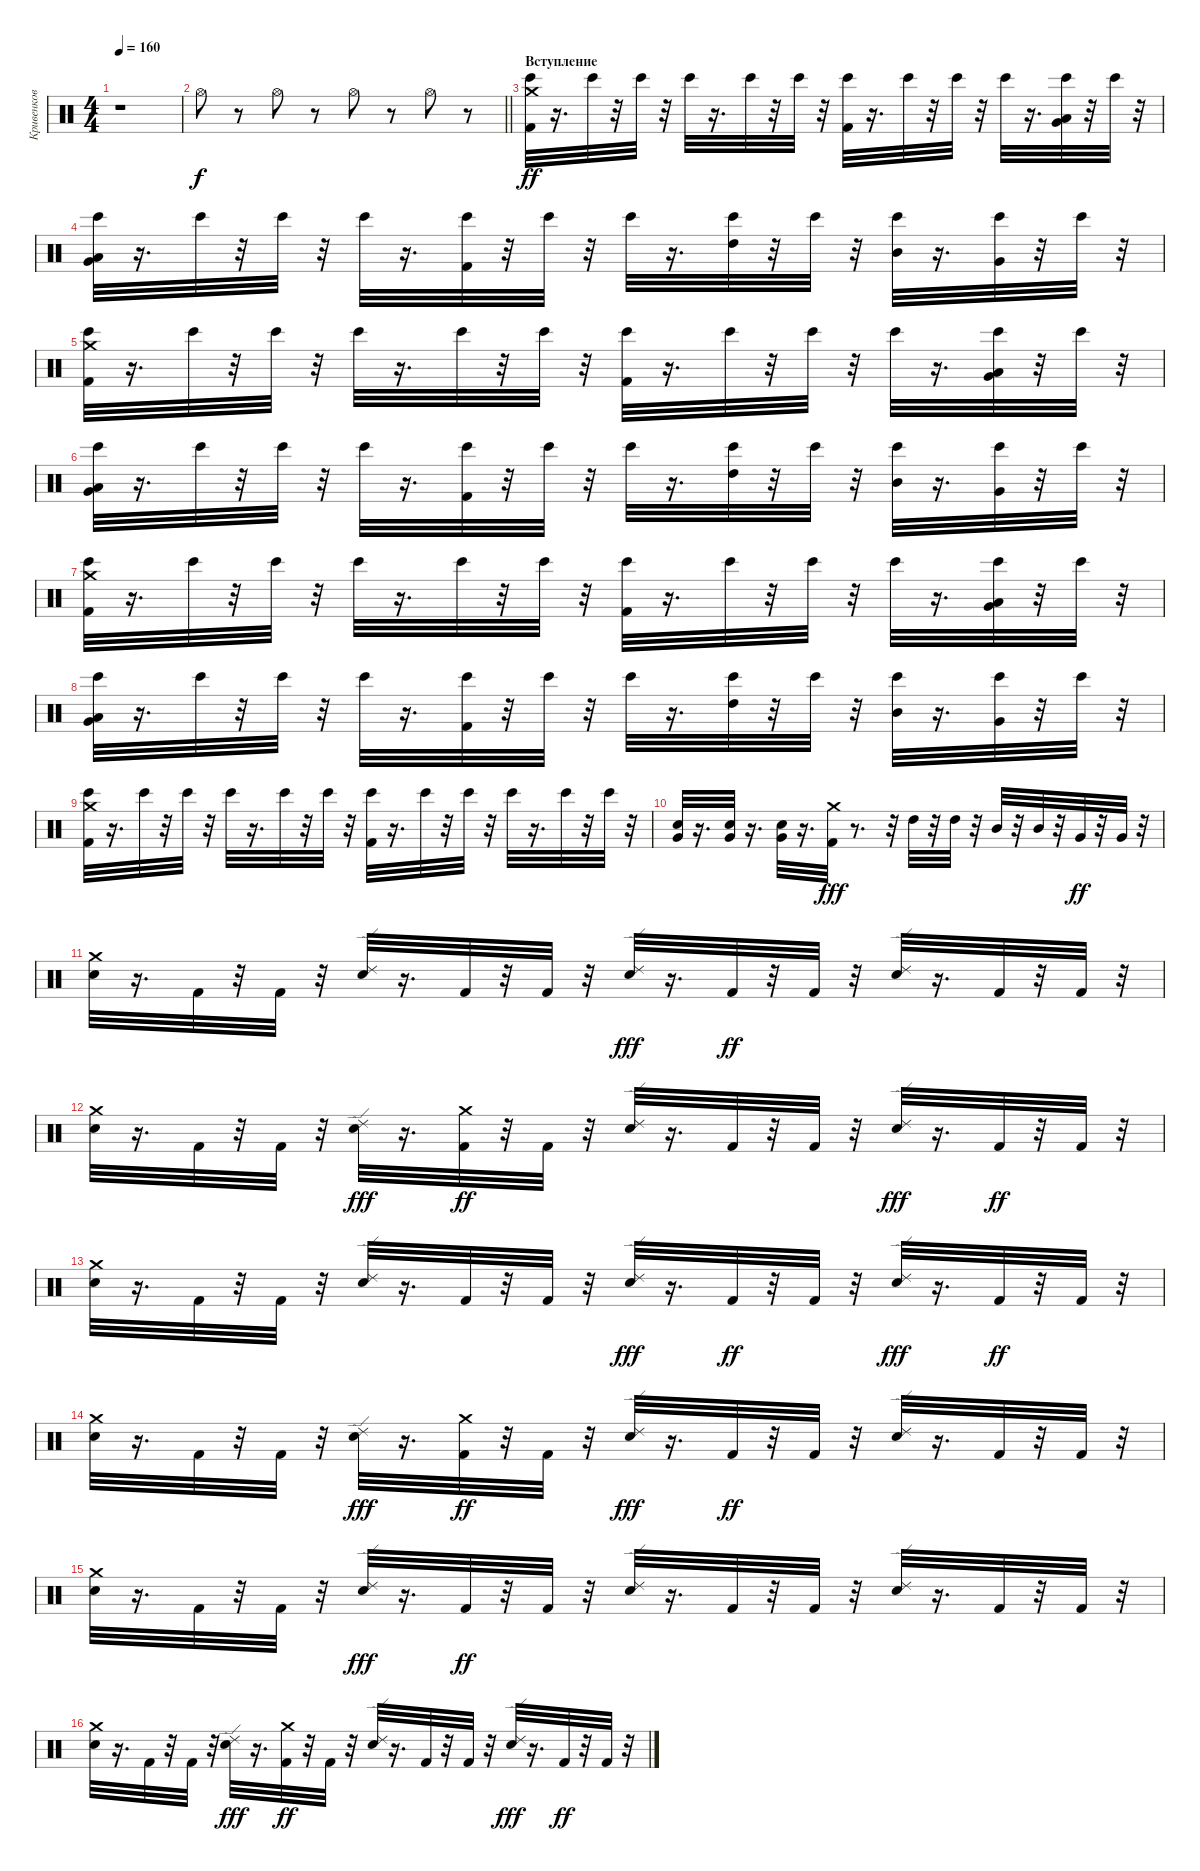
\track ("Кривенков" "Кривенков") {instrument percussion}
\staff {score}
\articulation defaults
\ts (4 4)
\tempo 160
\clef neutral
\ks c
r.1{dy f} |
\barLineRight lightlight "Hi-Hat (open)".8{volume 16}
r.8 "Hi-Hat (open)".8 r.8 "Hi-Hat (open)".8 r.8 "Hi-Hat (open)".8 r.8 |
\section ("" "Вступление")
("Kick (hit) 2" "Crash medium (hit)" "Bongo High (hit)").32{dy ff} r.16{d} "Bongo High (hit)".32 r.32 "Bongo High (hit)".32 r.32 "Bongo High (hit)".32 r.16{d} "Bongo High (hit)".32 r.32 "Bongo High (hit)".32 r.32 ("Kick (hit) 2" "Bongo High (hit)").32 r.16{d} "Bongo High (hit)".32 r.32 "Bongo High (hit)".32 r.32 "Bongo High (hit)".32 r.16{d} ("Very Low Tom (hit)" "Low Tom (hit)" "Bongo High (hit)").32 r.32 "Bongo High (hit)".32 r.32 |
("Very Low Tom (hit)" "Low Tom (hit)" "Bongo High (hit)").32 r.16{d} "Bongo High (hit)".32 r.32 "Bongo High (hit)".32 r.32 "Bongo High (hit)".32 r.16{d} ("Kick (hit) 2" "Bongo High (hit)").32 r.32 "Bongo High (hit)".32 r.32 "Bongo High (hit)".32 r.16{d} ("High Tom (hit)" "Bongo High (hit)").32 r.32 "Bongo High (hit)".32 r.32 ("Mid Tom (hit)" "Bongo High (hit)").32 r.16{d} ("Very Low Tom (hit)" "Bongo High (hit)").32 r.32 "Bongo High (hit)".32 r.32 |
("Crash medium (hit)" "Kick (hit) 2" "Bongo High (hit)").32 r.16{d} "Bongo High (hit)".32 r.32 "Bongo High (hit)".32 r.32 "Bongo High (hit)".32 r.16{d} "Bongo High (hit)".32 r.32 "Bongo High (hit)".32 r.32 ("Kick (hit) 2" "Bongo High (hit)").32 r.16{d} "Bongo High (hit)".32 r.32 "Bongo High (hit)".32 r.32 "Bongo High (hit)".32 r.16{d} ("Very Low Tom (hit)" "Low Tom (hit)" "Bongo High (hit)").32 r.32 "Bongo High (hit)".32 r.32 |
("Very Low Tom (hit)" "Low Tom (hit)" "Bongo High (hit)").32 r.16{d} "Bongo High (hit)".32 r.32 "Bongo High (hit)".32 r.32 "Bongo High (hit)".32 r.16{d} ("Kick (hit) 2" "Bongo High (hit)").32 r.32 "Bongo High (hit)".32 r.32 "Bongo High (hit)".32 r.16{d} ("High Tom (hit)" "Bongo High (hit)").32 r.32 "Bongo High (hit)".32 r.32 ("Mid Tom (hit)" "Bongo High (hit)").32 r.16{d} ("Very Low Tom (hit)" "Bongo High (hit)").32 r.32 "Bongo High (hit)".32 r.32 |
("Kick (hit) 2" "Crash medium (hit)" "Bongo High (hit)").32 r.16{d} "Bongo High (hit)".32 r.32 "Bongo High (hit)".32 r.32 "Bongo High (hit)".32 r.16{d} "Bongo High (hit)".32 r.32 "Bongo High (hit)".32 r.32 ("Kick (hit) 2" "Bongo High (hit)").32 r.16{d} "Bongo High (hit)".32 r.32 "Bongo High (hit)".32 r.32 "Bongo High (hit)".32 r.16{d} ("Very Low Tom (hit)" "Low Tom (hit)" "Bongo High (hit)").32 r.32 "Bongo High (hit)".32 r.32 |
("Very Low Tom (hit)" "Low Tom (hit)" "Bongo High (hit)").32 r.16{d} "Bongo High (hit)".32 r.32 "Bongo High (hit)".32 r.32 "Bongo High (hit)".32 r.16{d} ("Kick (hit) 2" "Bongo High (hit)").32 r.32 "Bongo High (hit)".32 r.32 "Bongo High (hit)".32 r.16{d} ("High Tom (hit)" "Bongo High (hit)").32 r.32 "Bongo High (hit)".32 r.32 ("Mid Tom (hit)" "Bongo High (hit)").32 r.16{d} ("Very Low Tom (hit)" "Bongo High (hit)").32 r.32 "Bongo High (hit)".32 r.32 |
("Kick (hit) 2" "Crash medium (hit)" "Bongo High (hit)").32 r.16{d} "Bongo High (hit)".32 r.32 "Bongo High (hit)".32 r.32 "Bongo High (hit)".32 r.16{d} "Bongo High (hit)".32 r.32 "Bongo High (hit)".32 r.32 ("Kick (hit) 2" "Bongo High (hit)").32 r.16{d} "Bongo High (hit)".32 r.32 "Bongo High (hit)".32 r.32 "Bongo High (hit)".32 r.16{d} "Bongo High (hit)".32 r.32 "Bongo High (hit)".32 r.32 |
("Very Low Tom (hit)" "Electric Snare (hit)").32 r.16{d} ("Very Low Tom (hit)" "Electric Snare (hit)").32 r.16{d} ("Very Low Tom (hit)" "Electric Snare (hit)").32 r.16{d} ("Kick (hit) 2" "Crash medium (hit)").32{dy fff} r.8{d} r.32 "High Tom (hit)".32 r.32 "High Tom (hit)".32 r.32 "Mid Tom (hit)".32 r.32 "Mid Tom (hit)".32 r.32 "Very Low Tom (hit)".32{dy ff} r.32 "Very Low Tom (hit)".32 r.32 |
("Electric Snare (hit)" "Crash medium (hit)").32 r.16{d} "Kick (hit) 2".32 r.32 "Kick (hit) 2".32 r.32 ("Ride (edge) 2" "Electric Snare (hit)").32 r.16{d} "Kick (hit) 2".32 r.32 "Kick (hit) 2".32 r.32 ("Electric Snare (hit)" "Ride (edge) 2").32{dy fff} r.16{d} "Kick (hit) 2".32{dy ff} r.32 "Kick (hit) 2".32 r.32 ("Ride (edge) 2" "Electric Snare (hit)").32 r.16{d} "Kick (hit) 2".32 r.32 "Kick (hit) 2".32 r.32 |
("Electric Snare (hit)" "Crash medium (hit)").32 r.16{d} "Kick (hit) 2".32 r.32 "Kick (hit) 2".32 r.32 ("Electric Snare (hit)" "Ride (edge) 2").32{dy fff} r.16{d} ("Crash medium (hit)" "Kick (hit) 2").32{dy ff} r.32 "Kick (hit) 2".32 r.32 ("Ride (edge) 2" "Electric Snare (hit)").32 r.16{d} "Kick (hit) 2".32 r.32 "Kick (hit) 2".32 r.32 ("Electric Snare (hit)" "Ride (edge) 2").32{dy fff} r.16{d} "Kick (hit) 2".32{dy ff} r.32 "Kick (hit) 2".32 r.32 |
("Crash medium (hit)" "Electric Snare (hit)").32 r.16{d} "Kick (hit) 2".32 r.32 "Kick (hit) 2".32 r.32 ("Ride (edge) 2" "Electric Snare (hit)").32 r.16{d} "Kick (hit) 2".32 r.32 "Kick (hit) 2".32 r.32 ("Electric Snare (hit)" "Ride (edge) 2").32{dy fff} r.16{d} "Kick (hit) 2".32{dy ff} r.32 "Kick (hit) 2".32 r.32 ("Electric Snare (hit)" "Ride (edge) 2").32{dy fff} r.16{d} "Kick (hit) 2".32{dy ff} r.32 "Kick (hit) 2".32 r.32 |
("Electric Snare (hit)" "Crash medium (hit)").32 r.16{d} "Kick (hit) 2".32 r.32 "Kick (hit) 2".32 r.32 ("Electric Snare (hit)" "Ride (edge) 2").32{dy fff} r.16{d} ("Crash medium (hit)" "Kick (hit) 2").32{dy ff} r.32 "Kick (hit) 2".32 r.32 ("Electric Snare (hit)" "Ride (edge) 2").32{dy fff} r.16{d} "Kick (hit) 2".32{dy ff} r.32 "Kick (hit) 2".32 r.32 ("Ride (edge) 2" "Electric Snare (hit)").32 r.16{d} "Kick (hit) 2".32 r.32 "Kick (hit) 2".32 r.32 |
("Electric Snare (hit)" "Crash medium (hit)").32 r.16{d} "Kick (hit) 2".32 r.32 "Kick (hit) 2".32 r.32 ("Electric Snare (hit)" "Ride (edge) 2").32{dy fff} r.16{d} "Kick (hit) 2".32{dy ff} r.32 "Kick (hit) 2".32 r.32 ("Ride (edge) 2" "Electric Snare (hit)").32 r.16{d} "Kick (hit) 2".32 r.32 "Kick (hit) 2".32 r.32 ("Ride (edge) 2" "Electric Snare (hit)").32 r.16{d} "Kick (hit) 2".32 r.32 "Kick (hit) 2".32 r.32 |
("Crash medium (hit)" "Electric Snare (hit)").32 r.16{d} "Kick (hit) 2".32 r.32 "Kick (hit) 2".32 r.32 ("Electric Snare (hit)" "Ride (edge) 2").32{dy fff} r.16{d} ("Crash medium (hit)" "Kick (hit) 2").32{dy ff} r.32 "Kick (hit) 2".32 r.32 ("Ride (edge) 2" "Electric Snare (hit)").32 r.16{d} "Kick (hit) 2".32 r.32 "Kick (hit) 2".32 r.32 ("Electric Snare (hit)" "Ride (edge) 2").32{dy fff} r.16{d} "Kick (hit) 2".32{dy ff} r.32 "Kick (hit) 2".32 r.32
